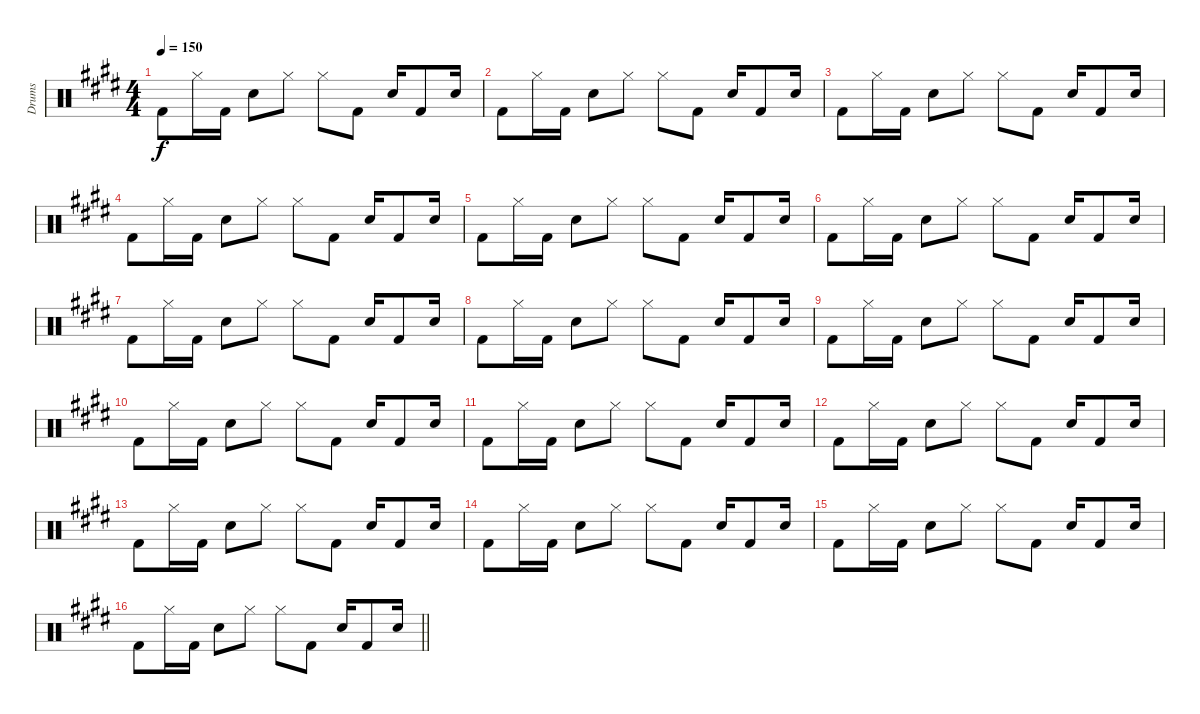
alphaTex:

\track ("Drums" "Drums") {instrument percussion bank 15}
\staff {score}
\articulation defaults
\ts (4 4)
\tempo 150
\clef neutral
\ks e "Kick (hit) 2".8{dy f} "Hi-Hat (closed)".16 "Kick (hit) 2".16 "Snare (hit) 2".8 "Hi-Hat (closed)".8 "Hi-Hat (closed)".8 "Kick (hit) 2".8 "Snare (hit) 2".16 "Kick (hit) 2".8 "Snare (hit) 2".16
|
"Kick (hit) 2".8 "Hi-Hat (closed)".16 "Kick (hit) 2".16 "Snare (hit) 2".8 "Hi-Hat (closed)".8 "Hi-Hat (closed)".8 "Kick (hit) 2".8 "Snare (hit) 2".16 "Kick (hit) 2".8 "Snare (hit) 2".16 |
"Kick (hit) 2".8 "Hi-Hat (closed)".16 "Kick (hit) 2".16 "Snare (hit) 2".8 "Hi-Hat (closed)".8 "Hi-Hat (closed)".8 "Kick (hit) 2".8 "Snare (hit) 2".16 "Kick (hit) 2".8 "Snare (hit) 2".16 |
"Kick (hit) 2".8 "Hi-Hat (closed)".16 "Kick (hit) 2".16 "Snare (hit) 2".8 "Hi-Hat (closed)".8 "Hi-Hat (closed)".8 "Kick (hit) 2".8 "Snare (hit) 2".16 "Kick (hit) 2".8 "Snare (hit) 2".16 |
"Kick (hit) 2".8 "Hi-Hat (closed)".16 "Kick (hit) 2".16 "Snare (hit) 2".8 "Hi-Hat (closed)".8 "Hi-Hat (closed)".8 "Kick (hit) 2".8 "Snare (hit) 2".16 "Kick (hit) 2".8 "Snare (hit) 2".16 |
"Kick (hit) 2".8 "Hi-Hat (closed)".16 "Kick (hit) 2".16 "Snare (hit) 2".8 "Hi-Hat (closed)".8 "Hi-Hat (closed)".8 "Kick (hit) 2".8 "Snare (hit) 2".16 "Kick (hit) 2".8 "Snare (hit) 2".16 |
"Kick (hit) 2".8 "Hi-Hat (closed)".16 "Kick (hit) 2".16 "Snare (hit) 2".8 "Hi-Hat (closed)".8 "Hi-Hat (closed)".8 "Kick (hit) 2".8 "Snare (hit) 2".16 "Kick (hit) 2".8 "Snare (hit) 2".16 |
"Kick (hit) 2".8 "Hi-Hat (closed)".16 "Kick (hit) 2".16 "Snare (hit) 2".8 "Hi-Hat (closed)".8 "Hi-Hat (closed)".8 "Kick (hit) 2".8 "Snare (hit) 2".16 "Kick (hit) 2".8 "Snare (hit) 2".16 |
"Kick (hit) 2".8 "Hi-Hat (closed)".16 "Kick (hit) 2".16 "Snare (hit) 2".8 "Hi-Hat (closed)".8 "Hi-Hat (closed)".8 "Kick (hit) 2".8 "Snare (hit) 2".16 "Kick (hit) 2".8 "Snare (hit) 2".16 |
"Kick (hit) 2".8 "Hi-Hat (closed)".16 "Kick (hit) 2".16 "Snare (hit) 2".8 "Hi-Hat (closed)".8 "Hi-Hat (closed)".8 "Kick (hit) 2".8 "Snare (hit) 2".16 "Kick (hit) 2".8 "Snare (hit) 2".16 |
"Kick (hit) 2".8 "Hi-Hat (closed)".16 "Kick (hit) 2".16 "Snare (hit) 2".8 "Hi-Hat (closed)".8 "Hi-Hat (closed)".8 "Kick (hit) 2".8 "Snare (hit) 2".16 "Kick (hit) 2".8 "Snare (hit) 2".16 |
"Kick (hit) 2".8 "Hi-Hat (closed)".16 "Kick (hit) 2".16 "Snare (hit) 2".8 "Hi-Hat (closed)".8 "Hi-Hat (closed)".8 "Kick (hit) 2".8 "Snare (hit) 2".16 "Kick (hit) 2".8 "Snare (hit) 2".16 |
"Kick (hit) 2".8 "Hi-Hat (closed)".16 "Kick (hit) 2".16 "Snare (hit) 2".8 "Hi-Hat (closed)".8 "Hi-Hat (closed)".8 "Kick (hit) 2".8 "Snare (hit) 2".16 "Kick (hit) 2".8 "Snare (hit) 2".16 |
"Kick (hit) 2".8 "Hi-Hat (closed)".16 "Kick (hit) 2".16 "Snare (hit) 2".8 "Hi-Hat (closed)".8 "Hi-Hat (closed)".8 "Kick (hit) 2".8 "Snare (hit) 2".16 "Kick (hit) 2".8 "Snare (hit) 2".16 |
"Kick (hit) 2".8 "Hi-Hat (closed)".16 "Kick (hit) 2".16 "Snare (hit) 2".8 "Hi-Hat (closed)".8 "Hi-Hat (closed)".8 "Kick (hit) 2".8 "Snare (hit) 2".16 "Kick (hit) 2".8 "Snare (hit) 2".16 |
\barLineRight lightlight "Kick (hit) 2".8 "Hi-Hat (closed)".16 "Kick (hit) 2".16 "Snare (hit) 2".8 "Hi-Hat (closed)".8 "Hi-Hat (closed)".8 "Kick (hit) 2".8 "Snare (hit) 2".16 "Kick (hit) 2".8 "Snare (hit) 2".16
